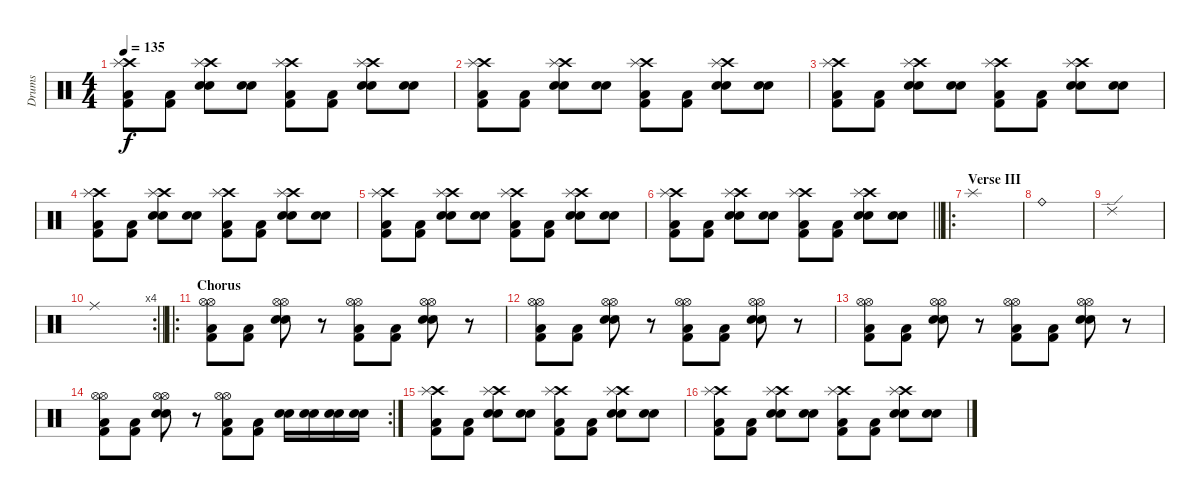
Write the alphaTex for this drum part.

\track ("Drums" "Drums") {instrument percussion}
\staff {score}
\articulation defaults
\ts (4 4)
\tempo 135
\clef neutral
\ks c
("Crash high (hit)" "Splash (hit)" "Kick (hit) 2" "Low Floor Tom (hit)").8{dy f} ("Kick (hit) 2" "Low Floor Tom (hit)").8 ("Crash high (hit)" "Splash (hit)" "Electric Snare (hit)" "Electric Snare (hit)").8 ("Electric Snare (hit)" "Electric Snare (hit)").8 ("Crash high (hit)" "Splash (hit)" "Kick (hit) 2" "Low Floor Tom (hit)").8 ("Kick (hit) 2" "Low Floor Tom (hit)").8 ("Crash high (hit)" "Splash (hit)" "Electric Snare (hit)" "Electric Snare (hit)").8 ("Electric Snare (hit)" "Electric Snare (hit)").8 |
("Crash high (hit)" "Splash (hit)" "Kick (hit) 2" "Low Floor Tom (hit)").8 ("Kick (hit) 2" "Low Floor Tom (hit)").8 ("Crash high (hit)" "Splash (hit)" "Electric Snare (hit)" "Electric Snare (hit)").8 ("Electric Snare (hit)" "Electric Snare (hit)").8 ("Crash high (hit)" "Splash (hit)" "Kick (hit) 2" "Low Floor Tom (hit)").8 ("Kick (hit) 2" "Low Floor Tom (hit)").8 ("Crash high (hit)" "Splash (hit)" "Electric Snare (hit)" "Electric Snare (hit)").8 ("Electric Snare (hit)" "Electric Snare (hit)").8 |
("Crash high (hit)" "Splash (hit)" "Kick (hit) 2" "Low Floor Tom (hit)").8 ("Kick (hit) 2" "Low Floor Tom (hit)").8 ("Crash high (hit)" "Splash (hit)" "Electric Snare (hit)" "Electric Snare (hit)").8 ("Electric Snare (hit)" "Electric Snare (hit)").8 ("Crash high (hit)" "Splash (hit)" "Kick (hit) 2" "Low Floor Tom (hit)").8 ("Kick (hit) 2" "Low Floor Tom (hit)").8 ("Crash high (hit)" "Splash (hit)" "Electric Snare (hit)" "Electric Snare (hit)").8 ("Electric Snare (hit)" "Electric Snare (hit)").8 |
("Crash high (hit)" "Splash (hit)" "Kick (hit) 2" "Low Floor Tom (hit)").8 ("Kick (hit) 2" "Low Floor Tom (hit)").8 ("Crash high (hit)" "Splash (hit)" "Electric Snare (hit)" "Electric Snare (hit)").8 ("Electric Snare (hit)" "Electric Snare (hit)").8 ("Crash high (hit)" "Splash (hit)" "Kick (hit) 2" "Low Floor Tom (hit)").8 ("Kick (hit) 2" "Low Floor Tom (hit)").8 ("Crash high (hit)" "Splash (hit)" "Electric Snare (hit)" "Electric Snare (hit)").8 ("Electric Snare (hit)" "Electric Snare (hit)").8 |
("Crash high (hit)" "Splash (hit)" "Kick (hit) 2" "Low Floor Tom (hit)").8 ("Kick (hit) 2" "Low Floor Tom (hit)").8 ("Crash high (hit)" "Splash (hit)" "Electric Snare (hit)" "Electric Snare (hit)").8 ("Electric Snare (hit)" "Electric Snare (hit)").8 ("Crash high (hit)" "Splash (hit)" "Kick (hit) 2" "Low Floor Tom (hit)").8 ("Kick (hit) 2" "Low Floor Tom (hit)").8 ("Crash high (hit)" "Splash (hit)" "Electric Snare (hit)" "Electric Snare (hit)").8 ("Electric Snare (hit)" "Electric Snare (hit)").8 |
\barLineRight lightlight
("Crash high (hit)" "Splash (hit)" "Kick (hit) 2" "Low Floor Tom (hit)").8 ("Kick (hit) 2" "Low Floor Tom (hit)").8 ("Crash high (hit)" "Splash (hit)" "Electric Snare (hit)" "Electric Snare (hit)").8 ("Electric Snare (hit)" "Electric Snare (hit)").8 ("Crash high (hit)" "Splash (hit)" "Kick (hit) 2" "Low Floor Tom (hit)").8 ("Kick (hit) 2" "Low Floor Tom (hit)").8 ("Crash high (hit)" "Splash (hit)" "Electric Snare (hit)" "Electric Snare (hit)").8 ("Electric Snare (hit)" "Electric Snare (hit)").8 |
\ro
\section ("" "Verse III")
"Splash (hit)".1 |
"Ride (bell)".1 |
"Ride (edge) 2".1 |
\rc 4
\barLineRight lightlight "Ride (middle)".1
|
\ro
\section ("" "Chorus")
("Hi-Hat (open)" "Hi-Hat (open)" "Kick (hit) 2" "Low Floor Tom (hit)").8 ("Kick (hit) 2" "Low Floor Tom (hit)").8 ("Hi-Hat (open)" "Hi-Hat (open)" "Electric Snare (hit)" "Electric Snare (hit)").8 r.8 ("Hi-Hat (open)" "Hi-Hat (open)" "Kick (hit) 2" "Low Floor Tom (hit)").8 ("Kick (hit) 2" "Low Floor Tom (hit)").8 ("Hi-Hat (open)" "Hi-Hat (open)" "Electric Snare (hit)" "Electric Snare (hit)").8 r.8 |
("Hi-Hat (open)" "Hi-Hat (open)" "Kick (hit) 2" "Low Floor Tom (hit)").8 ("Kick (hit) 2" "Low Floor Tom (hit)").8 ("Hi-Hat (open)" "Hi-Hat (open)" "Electric Snare (hit)" "Electric Snare (hit)").8 r.8 ("Hi-Hat (open)" "Hi-Hat (open)" "Kick (hit) 2" "Low Floor Tom (hit)").8 ("Kick (hit) 2" "Low Floor Tom (hit)").8 ("Hi-Hat (open)" "Hi-Hat (open)" "Electric Snare (hit)" "Electric Snare (hit)").8 r.8 |
("Hi-Hat (open)" "Hi-Hat (open)" "Kick (hit) 2" "Low Floor Tom (hit)").8 ("Kick (hit) 2" "Low Floor Tom (hit)").8 ("Hi-Hat (open)" "Hi-Hat (open)" "Electric Snare (hit)" "Electric Snare (hit)").8 r.8 ("Hi-Hat (open)" "Hi-Hat (open)" "Kick (hit) 2" "Low Floor Tom (hit)").8 ("Kick (hit) 2" "Low Floor Tom (hit)").8 ("Hi-Hat (open)" "Hi-Hat (open)" "Electric Snare (hit)" "Electric Snare (hit)").8 r.8 |
\rc 2
("Hi-Hat (open)" "Hi-Hat (open)" "Kick (hit) 2" "Low Floor Tom (hit)").8 ("Kick (hit) 2" "Low Floor Tom (hit)").8 ("Hi-Hat (open)" "Hi-Hat (open)" "Electric Snare (hit)" "Electric Snare (hit)").8 r.8 ("Hi-Hat (open)" "Hi-Hat (open)" "Kick (hit) 2" "Low Floor Tom (hit)").8 ("Kick (hit) 2" "Low Floor Tom (hit)").8 ("Snare (hit) 2" "Electric Snare (hit)").16 ("Snare (hit) 2" "Electric Snare (hit)").16 ("Snare (hit) 2" "Electric Snare (hit)").16 ("Snare (hit) 2" "Electric Snare (hit)").16 |
("Crash high (hit)" "Splash (hit)" "Kick (hit) 2" "Low Floor Tom (hit)").8 ("Kick (hit) 2" "Low Floor Tom (hit)").8 ("Crash high (hit)" "Splash (hit)" "Electric Snare (hit)" "Electric Snare (hit)").8 ("Electric Snare (hit)" "Electric Snare (hit)").8 ("Crash high (hit)" "Splash (hit)" "Kick (hit) 2" "Low Floor Tom (hit)").8 ("Kick (hit) 2" "Low Floor Tom (hit)").8 ("Crash high (hit)" "Splash (hit)" "Electric Snare (hit)" "Electric Snare (hit)").8 ("Electric Snare (hit)" "Electric Snare (hit)").8 |
("Crash high (hit)" "Splash (hit)" "Kick (hit) 2" "Low Floor Tom (hit)").8 ("Kick (hit) 2" "Low Floor Tom (hit)").8 ("Crash high (hit)" "Splash (hit)" "Electric Snare (hit)" "Electric Snare (hit)").8 ("Electric Snare (hit)" "Electric Snare (hit)").8 ("Crash high (hit)" "Splash (hit)" "Kick (hit) 2" "Low Floor Tom (hit)").8 ("Kick (hit) 2" "Low Floor Tom (hit)").8 ("Crash high (hit)" "Splash (hit)" "Electric Snare (hit)" "Electric Snare (hit)").8 ("Electric Snare (hit)" "Electric Snare (hit)").8
